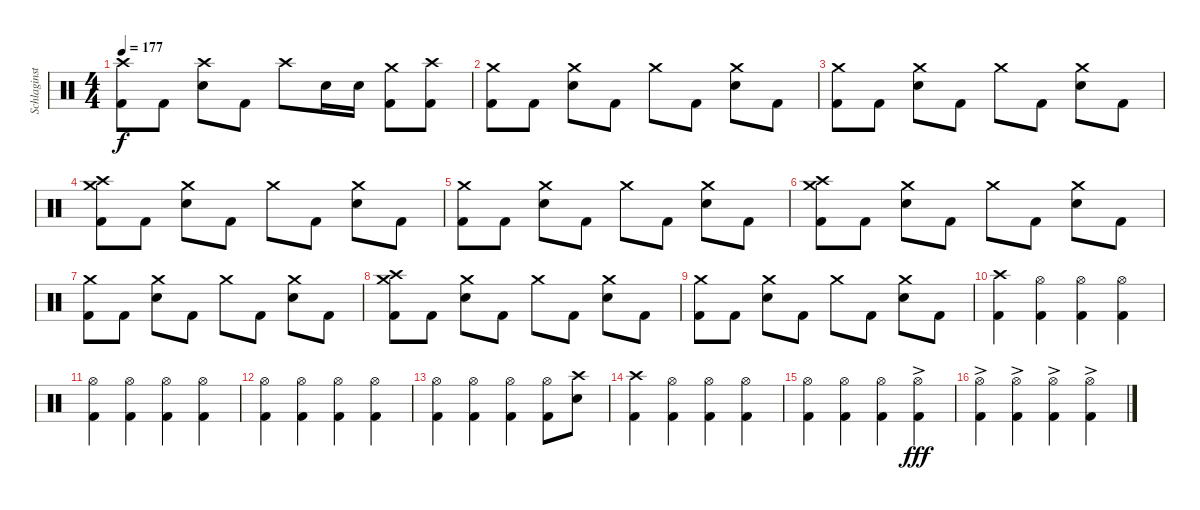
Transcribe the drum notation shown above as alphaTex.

\track ("Schlaginstrumente - Auswahl" "Schlaginst") {instrument percussion}
\staff {score}
\articulation defaults
\ts (4 4)
\tempo 177
\clef neutral
\ks c
("Crash high (hit)" "Kick (hit) 2").8{dy f} "Kick (hit) 2".8 ("Crash high (hit)" "Snare (hit) 2").8 "Kick (hit) 2".8 "Crash high (hit)".8 "Snare (hit) 2".16 "Snare (hit) 2".16 ("Crash medium (hit)" "Kick (hit) 2").8 ("Crash high (hit)" "Kick (hit) 2").8 |
("Crash medium (hit)" "Kick (hit) 2").8 "Kick (hit) 2".8 ("Crash medium (hit)" "Snare (hit) 2").8 "Kick (hit) 2".8 "Crash medium (hit)".8 "Kick (hit) 2".8 ("Crash medium (hit)" "Snare (hit) 2").8 "Kick (hit) 2".8 |
("Crash medium (hit)" "Kick (hit) 2").8 "Kick (hit) 2".8 ("Crash medium (hit)" "Snare (hit) 2").8 "Kick (hit) 2".8 "Crash medium (hit)".8 "Kick (hit) 2".8 ("Crash medium (hit)" "Snare (hit) 2").8 "Kick (hit) 2".8 |
("Crash medium (hit)" "Crash high (hit)" "Kick (hit) 2").8 "Kick (hit) 2".8 ("Crash medium (hit)" "Snare (hit) 2").8 "Kick (hit) 2".8 "Crash medium (hit)".8 "Kick (hit) 2".8 ("Crash medium (hit)" "Snare (hit) 2").8 "Kick (hit) 2".8 |
("Crash medium (hit)" "Kick (hit) 2").8 "Kick (hit) 2".8 ("Crash medium (hit)" "Snare (hit) 2").8 "Kick (hit) 2".8 "Crash medium (hit)".8 "Kick (hit) 2".8 ("Crash medium (hit)" "Snare (hit) 2").8 "Kick (hit) 2".8 |
("Crash medium (hit)" "Crash high (hit)" "Kick (hit) 2").8 "Kick (hit) 2".8 ("Crash medium (hit)" "Snare (hit) 2").8 "Kick (hit) 2".8 "Crash medium (hit)".8 "Kick (hit) 2".8 ("Crash medium (hit)" "Snare (hit) 2").8 "Kick (hit) 2".8 |
("Crash medium (hit)" "Kick (hit) 2").8 "Kick (hit) 2".8 ("Crash medium (hit)" "Snare (hit) 2").8 "Kick (hit) 2".8 "Crash medium (hit)".8 "Kick (hit) 2".8 ("Crash medium (hit)" "Snare (hit) 2").8 "Kick (hit) 2".8 |
("Crash medium (hit)" "Crash high (hit)" "Kick (hit) 2").8 "Kick (hit) 2".8 ("Crash medium (hit)" "Snare (hit) 2").8 "Kick (hit) 2".8 "Crash medium (hit)".8 "Kick (hit) 2".8 ("Crash medium (hit)" "Snare (hit) 2").8 "Kick (hit) 2".8 |
("Crash medium (hit)" "Kick (hit) 2").8 "Kick (hit) 2".8 ("Crash medium (hit)" "Snare (hit) 2").8 "Kick (hit) 2".8 "Crash medium (hit)".8 "Kick (hit) 2".8 ("Crash medium (hit)" "Snare (hit) 2").8 "Kick (hit) 2".8 |
("Crash high (hit)" "Kick (hit) 2").4 ("Hi-Hat (open)" "Kick (hit) 2").4 ("Hi-Hat (open)" "Kick (hit) 2").4 ("Hi-Hat (open)" "Kick (hit) 2").4 |
("Hi-Hat (open)" "Kick (hit) 2").4 ("Hi-Hat (open)" "Kick (hit) 2").4 ("Hi-Hat (open)" "Kick (hit) 2").4 ("Hi-Hat (open)" "Kick (hit) 2").4 |
("Hi-Hat (open)" "Kick (hit) 2").4 ("Hi-Hat (open)" "Kick (hit) 2").4 ("Hi-Hat (open)" "Kick (hit) 2").4 ("Hi-Hat (open)" "Kick (hit) 2").4 |
("Hi-Hat (open)" "Kick (hit) 2").4 ("Hi-Hat (open)" "Kick (hit) 2").4 ("Hi-Hat (open)" "Kick (hit) 2").4 ("Hi-Hat (open)" "Kick (hit) 2").8 ("Crash high (hit)" "Snare (hit) 2").8 |
("Crash high (hit)" "Kick (hit) 2").4 ("Hi-Hat (open)" "Kick (hit) 2").4 ("Hi-Hat (open)" "Kick (hit) 2").4 ("Hi-Hat (open)" "Kick (hit) 2").4 |
("Hi-Hat (open)" "Kick (hit) 2").4 ("Hi-Hat (open)" "Kick (hit) 2").4 ("Hi-Hat (open)" "Kick (hit) 2").4 ("Hi-Hat (open)"{ac} "Kick (hit) 2"{ac}).4{dy fff} |
("Hi-Hat (open)"{ac} "Kick (hit) 2"{ac}).4 ("Hi-Hat (open)"{ac} "Kick (hit) 2"{ac}).4 ("Hi-Hat (open)"{ac} "Kick (hit) 2"{ac}).4 ("Hi-Hat (open)"{ac} "Kick (hit) 2"{ac}).4
